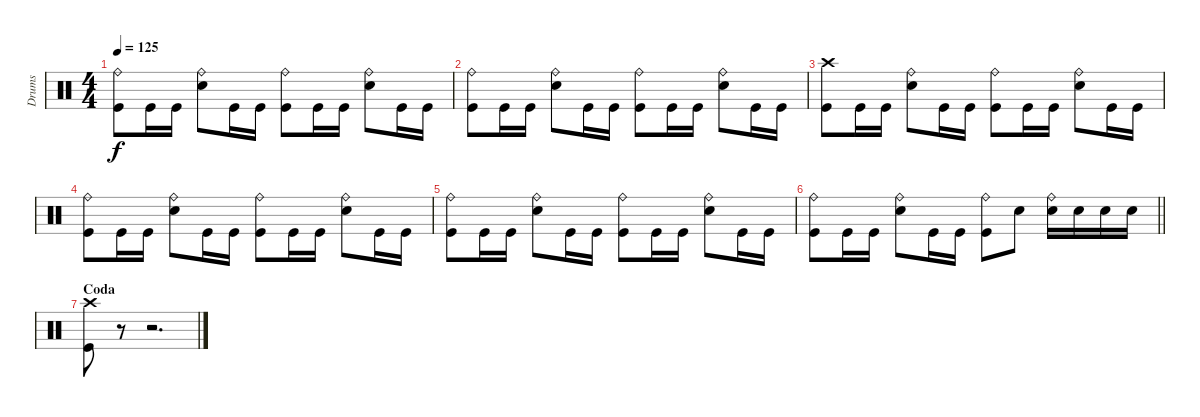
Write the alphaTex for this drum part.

\track ("Drums " "Drums ") {instrument percussion}
\staff {score}
\articulation defaults
\ts (4 4)
\tempo 125
\clef neutral
\ks c
("Ride (bell)" "Kick (hit)").8{dy f} "Kick (hit)".16 "Kick (hit)".16 ("Ride (bell)" "Electric Snare (hit)").8 "Kick (hit)".16 "Kick (hit)".16 ("Ride (bell)" "Kick (hit)").8 "Kick (hit)".16 "Kick (hit)".16 ("Ride (bell)" "Electric Snare (hit)").8 "Kick (hit)".16 "Kick (hit)".16 |
("Ride (bell)" "Kick (hit)").8 "Kick (hit)".16 "Kick (hit)".16 ("Ride (bell)" "Electric Snare (hit)").8 "Kick (hit)".16 "Kick (hit)".16 ("Ride (bell)" "Kick (hit)").8 "Kick (hit)".16 "Kick (hit)".16 ("Ride (bell)" "Electric Snare (hit)").8 "Kick (hit)".16 "Kick (hit)".16 |
("Crash high (hit)" "Kick (hit)").8 "Kick (hit)".16 "Kick (hit)".16 ("Ride (bell)" "Electric Snare (hit)").8 "Kick (hit)".16 "Kick (hit)".16 ("Ride (bell)" "Kick (hit)").8 "Kick (hit)".16 "Kick (hit)".16 ("Ride (bell)" "Electric Snare (hit)").8 "Kick (hit)".16 "Kick (hit)".16 |
("Ride (bell)" "Kick (hit)").8 "Kick (hit)".16 "Kick (hit)".16 ("Ride (bell)" "Electric Snare (hit)").8 "Kick (hit)".16 "Kick (hit)".16 ("Ride (bell)" "Kick (hit)").8 "Kick (hit)".16 "Kick (hit)".16 ("Ride (bell)" "Electric Snare (hit)").8 "Kick (hit)".16 "Kick (hit)".16 |
("Ride (bell)" "Kick (hit)").8 "Kick (hit)".16 "Kick (hit)".16 ("Ride (bell)" "Electric Snare (hit)").8 "Kick (hit)".16 "Kick (hit)".16 ("Ride (bell)" "Kick (hit)").8 "Kick (hit)".16 "Kick (hit)".16 ("Ride (bell)" "Electric Snare (hit)").8 "Kick (hit)".16 "Kick (hit)".16 |
\barLineRight lightlight
("Ride (bell)" "Kick (hit)").8 "Kick (hit)".16 "Kick (hit)".16 ("Ride (bell)" "Electric Snare (hit)").8 "Kick (hit)".16 "Kick (hit)".16 ("Ride (bell)" "Kick (hit)").8 "Electric Snare (hit)".8 ("Ride (bell)" "Electric Snare (hit)").16 "Electric Snare (hit)".16 "Electric Snare (hit)".16 "Electric Snare (hit)".16 |
\section ("" "Coda")
("Crash high (hit)" "Kick (hit)").8 r.8 r.2{d}
